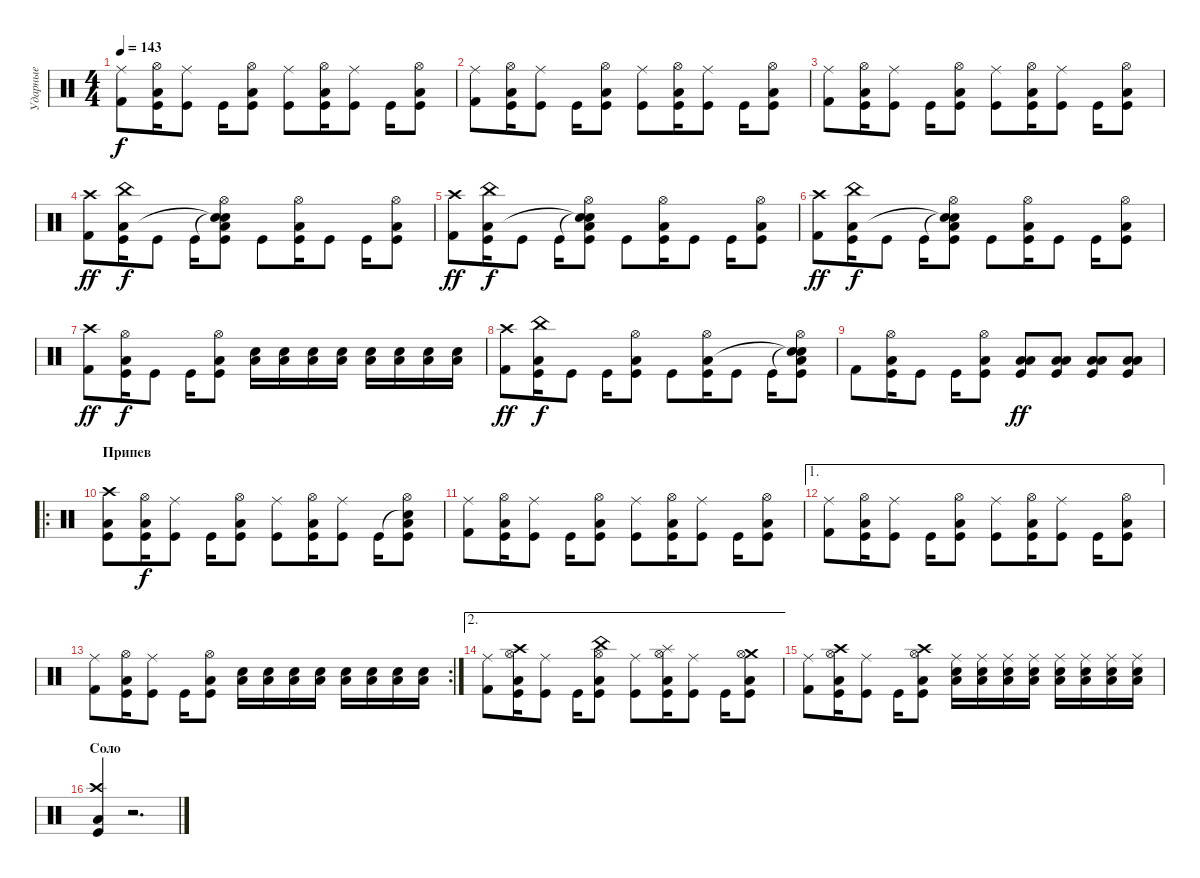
\track ("Ударные" "Ударные") {instrument percussion}
\staff {score}
\articulation defaults
\ts (4 4)
\tempo 143
\clef neutral
\ks c
("Ride (middle)" "Kick (hit) 2").8{dy f} ("Hi-Hat (open)" "Low Tom (hit)" "Kick (hit)").16 ("Ride (middle)" "Kick (hit)").8 "Kick (hit)".16 ("Hi-Hat (open)" "Low Tom (hit)" "Kick (hit)").8 ("Ride (middle)" "Kick (hit)").8 ("Hi-Hat (open)" "Low Tom (hit)" "Kick (hit)").16 ("Ride (middle)" "Kick (hit)").8 "Kick (hit)".16 ("Hi-Hat (open)" "Low Tom (hit)" "Kick (hit)").8 |
("Ride (middle)" "Kick (hit) 2").8 ("Hi-Hat (open)" "Low Tom (hit)" "Kick (hit)").16 ("Ride (middle)" "Kick (hit)").8 "Kick (hit)".16 ("Hi-Hat (open)" "Low Tom (hit)" "Kick (hit)").8 ("Ride (middle)" "Kick (hit)").8 ("Hi-Hat (open)" "Low Tom (hit)" "Kick (hit)").16 ("Ride (middle)" "Kick (hit)").8 "Kick (hit)".16 ("Hi-Hat (open)" "Low Tom (hit)" "Kick (hit)").8 |
("Ride (middle)" "Kick (hit) 2").8 ("Hi-Hat (open)" "Low Tom (hit)" "Kick (hit)").16 ("Ride (middle)" "Kick (hit)").8 "Kick (hit)".16 ("Hi-Hat (open)" "Low Tom (hit)" "Kick (hit)").8 ("Ride (middle)" "Kick (hit)").8 ("Hi-Hat (open)" "Low Tom (hit)" "Kick (hit)").16 ("Ride (middle)" "Kick (hit)").8 "Kick (hit)".16 ("Hi-Hat (open)" "Low Tom (hit)" "Kick (hit)").8 |
("Crash high (hit)" "Kick (hit) 2").8{dy ff balance 14} ("China (hit)" "Low Tom (hit)" "Kick (hit)").16{dy f} "Kick (hit)".8{balance 8} "Kick (hit)".16 ("Snare (hit)"{t} "Snare (hit)"{t} "Hi-Hat (open)" "Low Tom (hit)" "Kick (hit)").8 "Kick (hit)".8 ("Hi-Hat (open)" "Low Tom (hit)" "Kick (hit)").16 "Kick (hit)".8 "Kick (hit)".16 ("Hi-Hat (open)" "Low Tom (hit)" "Kick (hit)").8 |
("Crash high (hit)" "Kick (hit) 2").8{dy ff balance 14} ("China (hit)" "Low Tom (hit)" "Kick (hit)").16{dy f} "Kick (hit)".8{balance 8} "Kick (hit)".16 ("Snare (hit)"{t} "Snare (hit)"{t} "Hi-Hat (open)" "Low Tom (hit)" "Kick (hit)").8 "Kick (hit)".8 ("Hi-Hat (open)" "Low Tom (hit)" "Kick (hit)").16 "Kick (hit)".8 "Kick (hit)".16 ("Hi-Hat (open)" "Low Tom (hit)" "Kick (hit)").8 |
("Crash high (hit)" "Kick (hit) 2").8{dy ff balance 14} ("China (hit)" "Low Tom (hit)" "Kick (hit)").16{dy f} "Kick (hit)".8{balance 8} "Kick (hit)".16 ("Snare (hit)"{t} "Snare (hit)"{t} "Hi-Hat (open)" "Low Tom (hit)" "Kick (hit)").8 "Kick (hit)".8 ("Hi-Hat (open)" "Low Tom (hit)" "Kick (hit)").16 "Kick (hit)".8 "Kick (hit)".16 ("Hi-Hat (open)" "Low Tom (hit)" "Kick (hit)").8 |
("Crash high (hit)" "Kick (hit) 2").8{dy ff balance 14} ("Hi-Hat (open)" "Low Tom (hit)" "Kick (hit)").16{dy f} "Kick (hit)".8{balance 8} "Kick (hit)".16 ("Hi-Hat (open)" "Low Tom (hit)" "Kick (hit)").8 ("Snare (hit) 2" "Low Tom (hit)").16 ("Snare (hit) 2" "Low Tom (hit)").16 ("Snare (hit) 2" "Low Tom (hit)").16 ("Snare (hit) 2" "Low Tom (hit)").16 ("Snare (hit) 2" "Low Tom (hit)").16 ("Snare (hit) 2" "Low Tom (hit)").16 ("Snare (hit) 2" "Low Tom (hit)").16 ("Snare (hit) 2" "Low Tom (hit)").16 |
\section ("" " ")
("Crash high (hit)" "Kick (hit) 2").8{dy ff balance 14} ("China (hit)" "Low Tom (hit)" "Kick (hit)").16{dy f} "Kick (hit)".8{balance 8} "Kick (hit)".16 ("Hi-Hat (open)" "Low Tom (hit)" "Kick (hit)").8 "Kick (hit)".8 ("Hi-Hat (open)" "Low Tom (hit)" "Kick (hit)").16 "Kick (hit)".8 "Kick (hit)".16 ("Snare (hit)"{t} "Snare (hit)"{t} "Hi-Hat (open)" "Low Tom (hit)" "Kick (hit)").8 |
"Kick (hit) 2".8 ("Hi-Hat (open)" "Low Tom (hit)" "Kick (hit)").16 "Kick (hit)".8 "Kick (hit)".16 ("Hi-Hat (open)" "Low Tom (hit)" "Kick (hit)").8 ("Low Floor Tom (hit)" "Low Tom (hit)" "Kick (hit)").8{dy ff} ("Low Floor Tom (hit)" "Low Tom (hit)" "Kick (hit)").8 ("Low Floor Tom (hit)" "Low Tom (hit)" "Kick (hit)").8 ("Low Floor Tom (hit)" "Low Tom (hit)" "Kick (hit)").8 |
\ro
\section ("" "Припев")
("Crash high (hit)" "Low Floor Tom (hit)" "Kick (hit)").8{balance 14} ("Hi-Hat (open)" "Low Tom (hit)" "Kick (hit)").16{dy f} ("Ride (middle)" "Kick (hit)").8{balance 8} "Kick (hit)".16 ("Hi-Hat (open)" "Low Tom (hit)" "Kick (hit)").8 ("Ride (middle)" "Kick (hit)").8 ("Hi-Hat (open)" "Low Tom (hit)" "Kick (hit)").16 ("Ride (middle)" "Kick (hit)").8 "Kick (hit)".16 ("Snare (hit)"{t} "Hi-Hat (open)" "Low Tom (hit)" "Kick (hit)").8 |
("Ride (middle)" "Kick (hit) 2").8 ("Hi-Hat (open)" "Low Tom (hit)" "Kick (hit)").16 ("Ride (middle)" "Kick (hit)").8 "Kick (hit)".16 ("Hi-Hat (open)" "Low Tom (hit)" "Kick (hit)").8 ("Ride (middle)" "Kick (hit)").8 ("Hi-Hat (open)" "Low Tom (hit)" "Kick (hit)").16 ("Ride (middle)" "Kick (hit)").8 "Kick (hit)".16 ("Hi-Hat (open)" "Low Tom (hit)" "Kick (hit)").8 |
\ae 1
("Ride (middle)" "Kick (hit) 2").8 ("Hi-Hat (open)" "Low Tom (hit)" "Kick (hit)").16 ("Ride (middle)" "Kick (hit)").8 "Kick (hit)".16 ("Hi-Hat (open)" "Low Tom (hit)" "Kick (hit)").8 ("Ride (middle)" "Kick (hit)").8 ("Hi-Hat (open)" "Low Tom (hit)" "Kick (hit)").16 ("Ride (middle)" "Kick (hit)").8 "Kick (hit)".16 ("Hi-Hat (open)" "Low Tom (hit)" "Kick (hit)").8 |
\rc 2
("Ride (middle)" "Kick (hit) 2").8 ("Hi-Hat (open)" "Low Tom (hit)" "Kick (hit)").16 ("Ride (middle)" "Kick (hit)").8 "Kick (hit)".16 ("Hi-Hat (open)" "Low Tom (hit)" "Kick (hit)").8 ("Snare (hit) 2" "Low Tom (hit)").16 ("Snare (hit) 2" "Low Tom (hit)").16 ("Snare (hit) 2" "Low Tom (hit)").16 ("Snare (hit) 2" "Low Tom (hit)").16 ("Snare (hit) 2" "Low Tom (hit)").16 ("Snare (hit) 2" "Low Tom (hit)").16 ("Snare (hit) 2" "Low Tom (hit)").16 ("Snare (hit) 2" "Low Tom (hit)").16 |
\ae 2
("Ride (middle)" "Kick (hit) 2").8 ("Crash high (hit)" "Hi-Hat (open)" "Low Tom (hit)" "Kick (hit)").16 ("Ride (middle)" "Kick (hit)").8 "Kick (hit)".16 ("China (hit)" "Hi-Hat (open)" "Low Tom (hit)" "Kick (hit)").8 ("Ride (middle)" "Kick (hit)").8 ("Splash (hit)" "Hi-Hat (open)" "Low Tom (hit)" "Kick (hit)").16 ("Ride (middle)" "Kick (hit)").8 "Kick (hit)".16 ("Crash medium (hit)" "Hi-Hat (open)" "Low Tom (hit)" "Kick (hit)").8 |
("Ride (middle)" "Kick (hit) 2").8 ("Crash high (hit)" "Hi-Hat (open)" "Low Tom (hit)" "Kick (hit)").16 ("Ride (middle)" "Kick (hit)").8 "Kick (hit)".16 ("Crash high (hit)" "Hi-Hat (open)" "Low Tom (hit)" "Kick (hit)").8 ("Ride (middle)" "Snare (hit) 2" "Low Tom (hit)").16 ("Ride (middle)" "Snare (hit) 2" "Low Tom (hit)").16 ("Ride (middle)" "Snare (hit) 2" "Low Tom (hit)").16 ("Ride (middle)" "Snare (hit) 2" "Low Tom (hit)").16 ("Ride (middle)" "Snare (hit) 2" "Low Tom (hit)").16 ("Ride (middle)" "Snare (hit) 2" "Low Tom (hit)").16 ("Ride (middle)" "Snare (hit) 2" "Low Tom (hit)").16 ("Ride (middle)" "Snare (hit) 2" "Low Tom (hit)").16 |
\section ("" "Соло")
("Crash high (hit)" "Low Floor Tom (hit)" "Kick (hit)").4 r.2{d}
